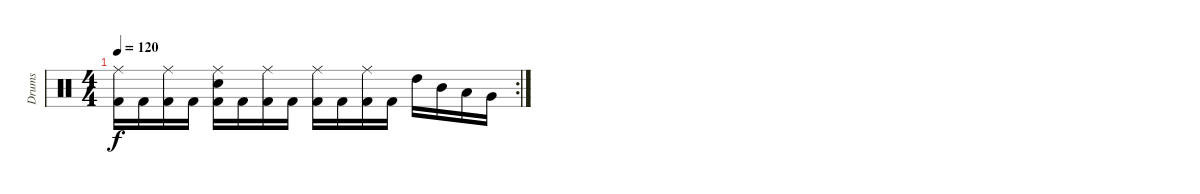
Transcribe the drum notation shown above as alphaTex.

\track ("Drums" "Drums") {instrument percussion}
\staff {score}
\articulation defaults
\rc 2
\ts (4 4)
\tempo 120
\clef neutral
\ks c
("Ride (middle)" "Kick (hit) 2").16{dy f} "Kick (hit) 2".16 ("Ride (middle)" "Kick (hit) 2").16 "Kick (hit) 2".16 ("Ride (middle)" "Snare (hit) 2" "Kick (hit) 2").16 "Kick (hit) 2".16 ("Ride (middle)" "Kick (hit) 2").16 "Kick (hit) 2".16 ("Ride (middle)" "Kick (hit) 2").16 "Kick (hit) 2".16 ("Ride (middle)" "Kick (hit) 2").16 "Kick (hit) 2".16 "High Tom (hit)".16 "Mid Tom (hit)".16 "Low Tom (hit)".16 "Very Low Tom (hit)".16
